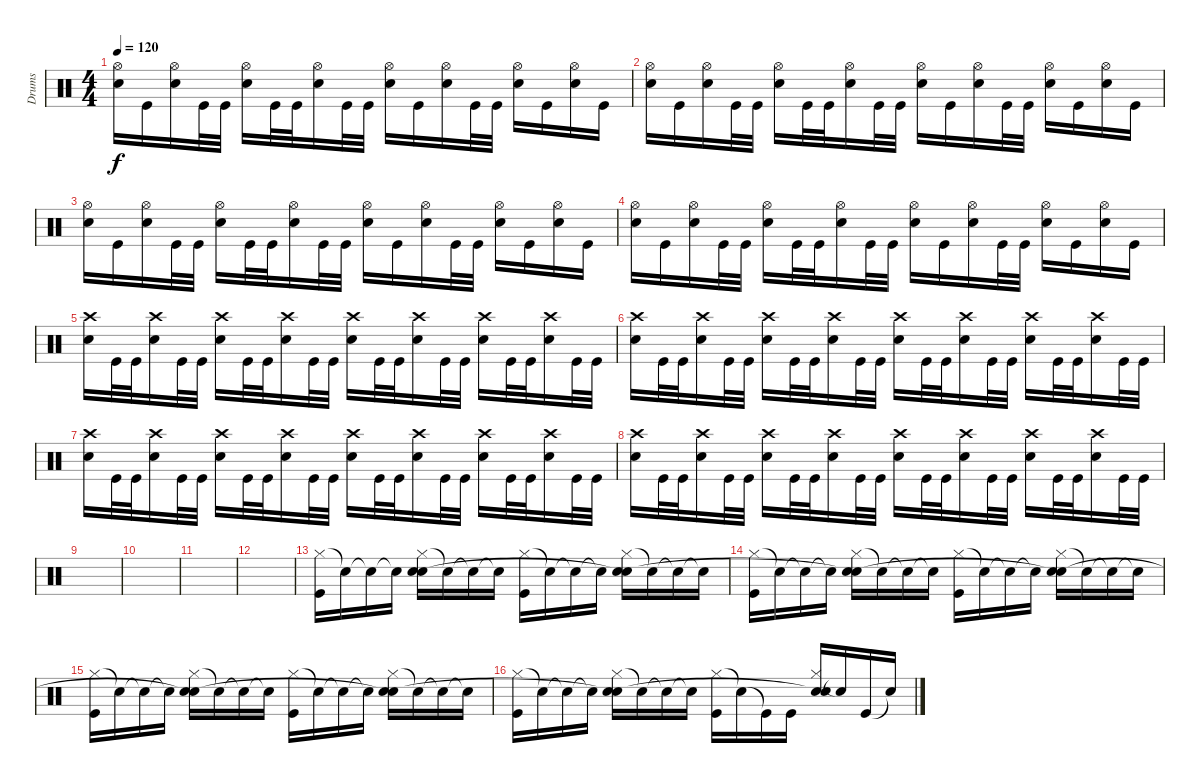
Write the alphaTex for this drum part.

\track ("Drums" "Drums") {instrument percussion}
\staff {score}
\articulation defaults
\ts (4 4)
\tempo 120
\clef neutral
\ks c
("Hi-Hat (open)" "Electric Snare (hit)").16{dy f} "Kick (hit)".16 ("Hi-Hat (open)" "Electric Snare (hit)").16 "Kick (hit)".32 "Kick (hit)".32 ("Hi-Hat (open)" "Electric Snare (hit)").16 "Kick (hit)".32 "Kick (hit)".32 ("Hi-Hat (open)" "Electric Snare (hit)").16 "Kick (hit)".32 "Kick (hit)".32 ("Hi-Hat (open)" "Electric Snare (hit)").16 "Kick (hit)".16 ("Hi-Hat (open)" "Electric Snare (hit)").16 "Kick (hit)".32 "Kick (hit)".32 ("Hi-Hat (open)" "Electric Snare (hit)").16 "Kick (hit)".16 ("Hi-Hat (open)" "Electric Snare (hit)").16 "Kick (hit)".16 |
("Hi-Hat (open)" "Electric Snare (hit)").16 "Kick (hit)".16 ("Hi-Hat (open)" "Electric Snare (hit)").16 "Kick (hit)".32 "Kick (hit)".32 ("Hi-Hat (open)" "Electric Snare (hit)").16 "Kick (hit)".32 "Kick (hit)".32 ("Hi-Hat (open)" "Electric Snare (hit)").16 "Kick (hit)".32 "Kick (hit)".32 ("Hi-Hat (open)" "Electric Snare (hit)").16 "Kick (hit)".16 ("Hi-Hat (open)" "Electric Snare (hit)").16 "Kick (hit)".32 "Kick (hit)".32 ("Hi-Hat (open)" "Electric Snare (hit)").16 "Kick (hit)".16 ("Hi-Hat (open)" "Electric Snare (hit)").16 "Kick (hit)".16 |
("Hi-Hat (open)" "Electric Snare (hit)").16 "Kick (hit)".16 ("Hi-Hat (open)" "Electric Snare (hit)").16 "Kick (hit)".32 "Kick (hit)".32 ("Hi-Hat (open)" "Electric Snare (hit)").16 "Kick (hit)".32 "Kick (hit)".32 ("Hi-Hat (open)" "Electric Snare (hit)").16 "Kick (hit)".32 "Kick (hit)".32 ("Hi-Hat (open)" "Electric Snare (hit)").16 "Kick (hit)".16 ("Hi-Hat (open)" "Electric Snare (hit)").16 "Kick (hit)".32 "Kick (hit)".32 ("Hi-Hat (open)" "Electric Snare (hit)").16 "Kick (hit)".16 ("Hi-Hat (open)" "Electric Snare (hit)").16 "Kick (hit)".16 |
("Hi-Hat (open)" "Electric Snare (hit)").16 "Kick (hit)".16 ("Hi-Hat (open)" "Electric Snare (hit)").16 "Kick (hit)".32 "Kick (hit)".32 ("Hi-Hat (open)" "Electric Snare (hit)").16 "Kick (hit)".32 "Kick (hit)".32 ("Hi-Hat (open)" "Electric Snare (hit)").16 "Kick (hit)".32 "Kick (hit)".32 ("Hi-Hat (open)" "Electric Snare (hit)").16 "Kick (hit)".16 ("Hi-Hat (open)" "Electric Snare (hit)").16 "Kick (hit)".32 "Kick (hit)".32 ("Hi-Hat (open)" "Electric Snare (hit)").16 "Kick (hit)".16 ("Hi-Hat (open)" "Electric Snare (hit)").16 "Kick (hit)".16 |
("Crash high (hit)" "Electric Snare (hit)").16 "Kick (hit)".32 "Kick (hit)".32 ("Crash high (hit)" "Electric Snare (hit)").16 "Kick (hit)".32 "Kick (hit)".32 ("Crash high (hit)" "Electric Snare (hit)").16 "Kick (hit)".32 "Kick (hit)".32 ("Crash high (hit)" "Electric Snare (hit)").16 "Kick (hit)".32 "Kick (hit)".32 ("Crash high (hit)" "Electric Snare (hit)").16 "Kick (hit)".32 "Kick (hit)".32 ("Crash high (hit)" "Electric Snare (hit)").16 "Kick (hit)".32 "Kick (hit)".32 ("Crash high (hit)" "Electric Snare (hit)").16 "Kick (hit)".32 "Kick (hit)".32 ("Crash high (hit)" "Electric Snare (hit)").16 "Kick (hit)".32 "Kick (hit)".32 |
("Crash high (hit)" "Electric Snare (hit)").16 "Kick (hit)".32 "Kick (hit)".32 ("Crash high (hit)" "Electric Snare (hit)").16 "Kick (hit)".32 "Kick (hit)".32 ("Crash high (hit)" "Electric Snare (hit)").16 "Kick (hit)".32 "Kick (hit)".32 ("Crash high (hit)" "Electric Snare (hit)").16 "Kick (hit)".32 "Kick (hit)".32 ("Crash high (hit)" "Electric Snare (hit)").16 "Kick (hit)".32 "Kick (hit)".32 ("Crash high (hit)" "Electric Snare (hit)").16 "Kick (hit)".32 "Kick (hit)".32 ("Crash high (hit)" "Electric Snare (hit)").16 "Kick (hit)".32 "Kick (hit)".32 ("Crash high (hit)" "Electric Snare (hit)").16 "Kick (hit)".32 "Kick (hit)".32 |
("Crash high (hit)" "Electric Snare (hit)").16 "Kick (hit)".32 "Kick (hit)".32 ("Crash high (hit)" "Electric Snare (hit)").16 "Kick (hit)".32 "Kick (hit)".32 ("Crash high (hit)" "Electric Snare (hit)").16 "Kick (hit)".32 "Kick (hit)".32 ("Crash high (hit)" "Electric Snare (hit)").16 "Kick (hit)".32 "Kick (hit)".32 ("Crash high (hit)" "Electric Snare (hit)").16 "Kick (hit)".32 "Kick (hit)".32 ("Crash high (hit)" "Electric Snare (hit)").16 "Kick (hit)".32 "Kick (hit)".32 ("Crash high (hit)" "Electric Snare (hit)").16 "Kick (hit)".32 "Kick (hit)".32 ("Crash high (hit)" "Electric Snare (hit)").16 "Kick (hit)".32 "Kick (hit)".32 |
("Crash high (hit)" "Electric Snare (hit)").16 "Kick (hit)".32 "Kick (hit)".32 ("Crash high (hit)" "Electric Snare (hit)").16 "Kick (hit)".32 "Kick (hit)".32 ("Crash high (hit)" "Electric Snare (hit)").16 "Kick (hit)".32 "Kick (hit)".32 ("Crash high (hit)" "Electric Snare (hit)").16 "Kick (hit)".32 "Kick (hit)".32 ("Crash high (hit)" "Electric Snare (hit)").16 "Kick (hit)".32 "Kick (hit)".32 ("Crash high (hit)" "Electric Snare (hit)").16 "Kick (hit)".32 "Kick (hit)".32 ("Crash high (hit)" "Electric Snare (hit)").16 "Kick (hit)".32 "Kick (hit)".32 ("Crash high (hit)" "Electric Snare (hit)").16 "Kick (hit)".32 "Kick (hit)".32 |
|
|
|
|
("Hi-Hat (closed)" "Kick (hit)").16 "Snare (hit)"{t}.16 "Snare (hit)"{t}.16 "Snare (hit)"{t}.16 ("Hi-Hat (closed)" "Electric Snare (hit)" "Snare (hit)").16 "Snare (hit)"{t}.16 "Snare (hit)"{t}.16 "Snare (hit)"{t}.16 ("Hi-Hat (closed)" "Kick (hit)").16 "Snare (hit)"{t}.16 "Snare (hit)"{t}.16 "Snare (hit)"{t}.16 ("Hi-Hat (closed)" "Electric Snare (hit)" "Snare (hit)"{t}).16 "Snare (hit)"{t}.16 "Snare (hit)"{t}.16 "Snare (hit)"{t}.16 |
("Hi-Hat (closed)" "Kick (hit)").16 "Snare (hit)"{t}.16 "Snare (hit)"{t}.16 "Snare (hit)"{t}.16 ("Hi-Hat (closed)" "Electric Snare (hit)" "Snare (hit)"{t}).16 "Snare (hit)"{t}.16 "Snare (hit)"{t}.16 "Snare (hit)"{t}.16 ("Hi-Hat (closed)" "Kick (hit)").16 "Snare (hit)"{t}.16 "Snare (hit)"{t}.16 "Snare (hit)"{t}.16 ("Hi-Hat (closed)" "Electric Snare (hit)" "Snare (hit)"{t}).16 "Snare (hit)"{t}.16 "Snare (hit)"{t}.16 "Snare (hit)"{t}.16 |
("Hi-Hat (closed)" "Kick (hit)").16 "Snare (hit)"{t}.16 "Snare (hit)"{t}.16 "Snare (hit)"{t}.16 ("Hi-Hat (closed)" "Electric Snare (hit)" "Snare (hit)"{t}).16 "Snare (hit)"{t}.16 "Snare (hit)"{t}.16 "Snare (hit)"{t}.16 ("Hi-Hat (closed)" "Kick (hit)").16 "Snare (hit)"{t}.16 "Snare (hit)"{t}.16 "Snare (hit)"{t}.16 ("Hi-Hat (closed)" "Electric Snare (hit)" "Snare (hit)"{t}).16 "Snare (hit)"{t}.16 "Snare (hit)"{t}.16 "Snare (hit)"{t}.16 |
("Hi-Hat (closed)" "Kick (hit)").16 "Snare (hit)"{t}.16 "Snare (hit)"{t}.16 "Snare (hit)"{t}.16 ("Hi-Hat (closed)" "Electric Snare (hit)" "Snare (hit)"{t}).16 "Snare (hit)"{t}.16 "Snare (hit)"{t}.16 "Snare (hit)"{t}.16 ("Hi-Hat (closed)" "Kick (hit)").16 "Snare (hit)"{t}.16 "Kick (hit)"{t}.16 "Kick (hit)".16 ("Hi-Hat (closed)" "Electric Snare (hit)" "Snare (hit)"{t}).16 "Snare (hit)"{t}.16 "Kick (hit)".16 "Snare (hit)"{t}.16
